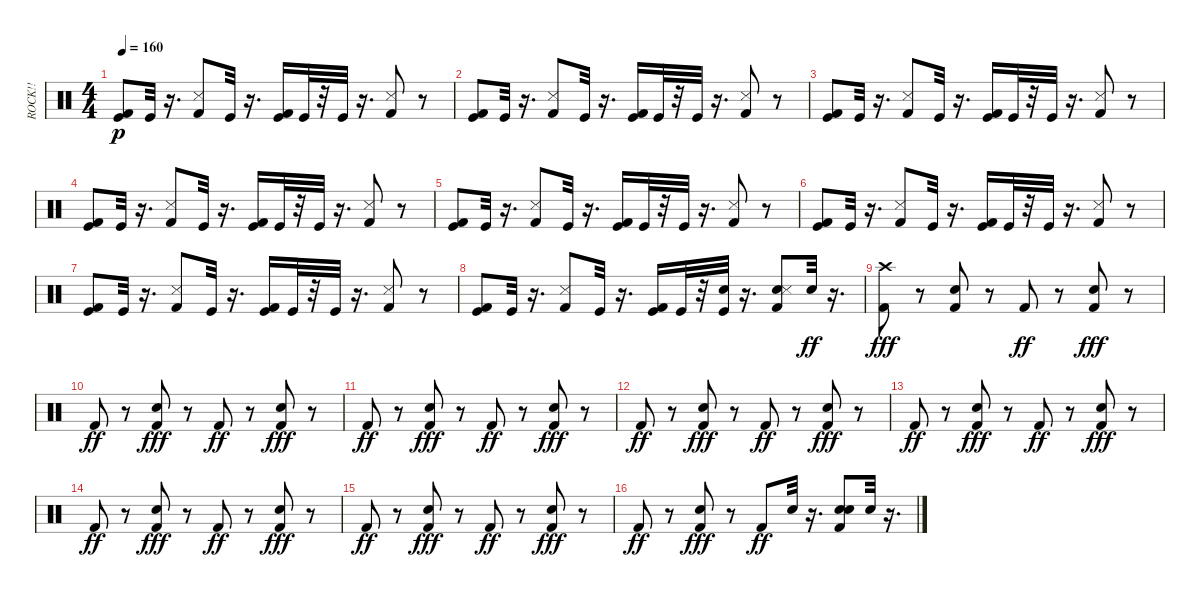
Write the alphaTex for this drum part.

\track ("ROCK!!" "ROCK!!") {instrument percussion}
\staff {score}
\articulation defaults
\ts (4 4)
\tempo 160
\clef neutral
\ks c
("Kick (hit) 2" "Kick (hit)").8{dy p} "Kick (hit)".32 r.16{d} ("Kick (hit) 2" "Snare (side stick) 3").8 "Kick (hit)".32 r.16{d} ("Kick (hit) 2" "Kick (hit)").16 "Kick (hit)".32 r.32 "Kick (hit)".32 r.16{d} ("Kick (hit) 2" "Snare (side stick) 3").8 r.8 |
("Kick (hit) 2" "Kick (hit)").8 "Kick (hit)".32 r.16{d} ("Kick (hit) 2" "Snare (side stick) 3").8 "Kick (hit)".32 r.16{d} ("Kick (hit) 2" "Kick (hit)").16 "Kick (hit)".32 r.32 "Kick (hit)".32 r.16{d} ("Kick (hit) 2" "Snare (side stick) 3").8 r.8 |
("Kick (hit) 2" "Kick (hit)").8 "Kick (hit)".32 r.16{d} ("Kick (hit) 2" "Snare (side stick) 3").8 "Kick (hit)".32 r.16{d} ("Kick (hit) 2" "Kick (hit)").16 "Kick (hit)".32 r.32 "Kick (hit)".32 r.16{d} ("Kick (hit) 2" "Snare (side stick) 3").8 r.8 |
("Kick (hit) 2" "Kick (hit)").8 "Kick (hit)".32 r.16{d} ("Kick (hit) 2" "Snare (side stick) 3").8 "Kick (hit)".32 r.16{d} ("Kick (hit) 2" "Kick (hit)").16 "Kick (hit)".32 r.32 "Kick (hit)".32 r.16{d} ("Kick (hit) 2" "Snare (side stick) 3").8 r.8 |
("Kick (hit) 2" "Kick (hit)").8 "Kick (hit)".32 r.16{d} ("Kick (hit) 2" "Snare (side stick) 3").8 "Kick (hit)".32 r.16{d} ("Kick (hit) 2" "Kick (hit)").16 "Kick (hit)".32 r.32 "Kick (hit)".32 r.16{d} ("Kick (hit) 2" "Snare (side stick) 3").8 r.8 |
("Kick (hit) 2" "Kick (hit)").8 "Kick (hit)".32 r.16{d} ("Kick (hit) 2" "Snare (side stick) 3").8 "Kick (hit)".32 r.16{d} ("Kick (hit) 2" "Kick (hit)").16 "Kick (hit)".32 r.32 "Kick (hit)".32 r.16{d} ("Kick (hit) 2" "Snare (side stick) 3").8 r.8 |
("Kick (hit) 2" "Kick (hit)").8 "Kick (hit)".32 r.16{d} ("Kick (hit) 2" "Snare (side stick) 3").8 "Kick (hit)".32 r.16{d} ("Kick (hit) 2" "Kick (hit)").16 "Kick (hit)".32 r.32 "Kick (hit)".32 r.16{d} ("Kick (hit) 2" "Snare (side stick) 3").8 r.8 |
("Kick (hit) 2" "Kick (hit)").8 "Kick (hit)".32 r.16{d} ("Kick (hit) 2" "Snare (side stick) 3").8 "Kick (hit)".32 r.16{d} ("Kick (hit) 2" "Kick (hit)").16 "Kick (hit)".32 r.32 ("Electric Snare (hit)" "Kick (hit)").32 r.16{d} ("Kick (hit) 2" "Electric Snare (hit)" "Snare (side stick) 3").8 "Electric Snare (hit)".32{dy ff} r.16{d} |
("Kick (hit) 2" "Crash high (hit)").8{dy fff} r.8 ("Kick (hit) 2" "Electric Snare (hit)").8 r.8 "Kick (hit) 2".8{dy ff} r.8 ("Kick (hit) 2" "Electric Snare (hit)").8{dy fff} r.8 |
"Kick (hit) 2".8{dy ff} r.8 ("Kick (hit) 2" "Electric Snare (hit)").8{dy fff} r.8 "Kick (hit) 2".8{dy ff} r.8 ("Kick (hit) 2" "Electric Snare (hit)").8{dy fff} r.8 |
"Kick (hit) 2".8{dy ff} r.8 ("Kick (hit) 2" "Electric Snare (hit)").8{dy fff} r.8 "Kick (hit) 2".8{dy ff} r.8 ("Kick (hit) 2" "Electric Snare (hit)").8{dy fff} r.8 |
"Kick (hit) 2".8{dy ff} r.8 ("Kick (hit) 2" "Electric Snare (hit)").8{dy fff} r.8 "Kick (hit) 2".8{dy ff} r.8 ("Kick (hit) 2" "Electric Snare (hit)").8{dy fff} r.8 |
"Kick (hit) 2".8{dy ff} r.8 ("Kick (hit) 2" "Electric Snare (hit)").8{dy fff} r.8 "Kick (hit) 2".8{dy ff} r.8 ("Kick (hit) 2" "Electric Snare (hit)").8{dy fff} r.8 |
"Kick (hit) 2".8{dy ff} r.8 ("Kick (hit) 2" "Electric Snare (hit)").8{dy fff} r.8 "Kick (hit) 2".8{dy ff} r.8 ("Kick (hit) 2" "Electric Snare (hit)").8{dy fff} r.8 |
"Kick (hit) 2".8{dy ff} r.8 ("Kick (hit) 2" "Electric Snare (hit)").8{dy fff} r.8 "Kick (hit) 2".8{dy ff} r.8 ("Kick (hit) 2" "Electric Snare (hit)").8{dy fff} r.8 |
"Kick (hit) 2".8{dy ff} r.8 ("Kick (hit) 2" "Electric Snare (hit)").8{dy fff} r.8 "Kick (hit) 2".8{dy ff} "Electric Snare (hit)".32 r.16{d} ("Kick (hit) 2" "Electric Snare (hit)" "Electric Snare (hit)").8 "Electric Snare (hit)".32 r.16{d}
